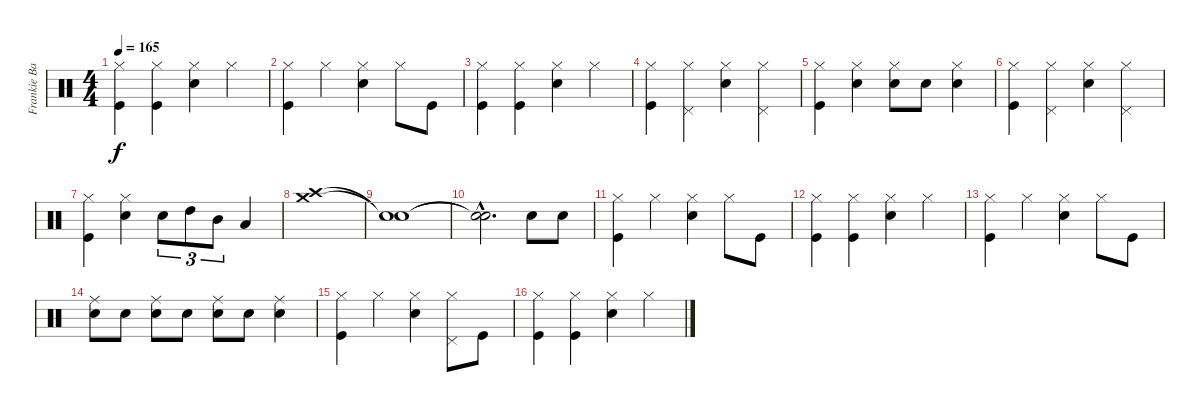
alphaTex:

\track ("Frankie Banali/Drums" "Frankie Ba") {instrument percussion}
\staff {score}
\articulation defaults
\ts (4 4)
\tempo 165
\clef neutral
\ks c
("Kick (hit)" "Hi-Hat (closed)").4{dy f} ("Kick (hit)" "Hi-Hat (closed)").4 ("Snare (hit) 2" "Hi-Hat (closed)").4 "Hi-Hat (closed)".4 |
("Kick (hit)" "Hi-Hat (closed)").4 "Hi-Hat (closed)".4 ("Snare (hit) 2" "Hi-Hat (closed)").4 "Hi-Hat (closed)".8 "Kick (hit)".8 |
("Kick (hit)" "Hi-Hat (closed)").4 ("Kick (hit)" "Hi-Hat (closed)").4 ("Snare (hit) 2" "Hi-Hat (closed)").4 "Hi-Hat (closed)".4 |
("Kick (hit)" "Hi-Hat (closed)").4 ("Pedal Hi-Hat (hit)" "Hi-Hat (closed)").4 ("Snare (hit) 2" "Hi-Hat (closed)").4 ("Pedal Hi-Hat (hit)" "Hi-Hat (closed)").4 |
("Kick (hit)" "Hi-Hat (closed)").4 ("Snare (hit) 2" "Hi-Hat (closed)").4 ("Snare (hit) 2" "Hi-Hat (closed)").8 "Snare (hit) 2".8 ("Snare (hit) 2" "Hi-Hat (closed)").4 |
("Kick (hit)" "Hi-Hat (closed)").4 ("Pedal Hi-Hat (hit)" "Hi-Hat (closed)").4 ("Snare (hit) 2" "Hi-Hat (closed)").4 ("Pedal Hi-Hat (hit)" "Hi-Hat (closed)").4 |
("Kick (hit)" "Hi-Hat (closed)").4 ("Snare (hit) 2" "Hi-Hat (closed)").4 "Snare (hit) 2".8{tu (3 2)} "High Tom (hit)".8{tu (3 2)} "Mid Tom (hit)".8{tu (3 2)} "Low Tom (hit)".4 |
("Crash high (hit)" "Crash medium (hit)").1 |
("Snare (hit)"{t} "Snare (hit)"{t}).1 |
("Snare (hit)"{hac t} "Snare (hit)"{hac t}).2{d} "Snare (hit) 2".8 "Snare (hit) 2".8 |
("Kick (hit)" "Hi-Hat (closed)").4 "Hi-Hat (closed)".4 ("Snare (hit) 2" "Hi-Hat (closed)").4 "Hi-Hat (closed)".8 "Kick (hit)".8 |
("Kick (hit)" "Hi-Hat (closed)").4 ("Kick (hit)" "Hi-Hat (closed)").4 ("Snare (hit) 2" "Hi-Hat (closed)").4 "Hi-Hat (closed)".4 |
("Kick (hit)" "Hi-Hat (closed)").4 "Hi-Hat (closed)".4 ("Snare (hit) 2" "Hi-Hat (closed)").4 "Hi-Hat (closed)".8 "Kick (hit)".8 |
("Snare (hit) 2" "Ride (middle)").8 "Snare (hit) 2".8 ("Snare (hit) 2" "Ride (middle)").8 "Snare (hit) 2".8 ("Snare (hit) 2" "Ride (middle)").8 "Snare (hit) 2".8 ("Snare (hit) 2" "Ride (middle)").4 |
("Kick (hit)" "Hi-Hat (closed)").4 "Hi-Hat (closed)".4 ("Snare (hit) 2" "Hi-Hat (closed)").4 ("Pedal Hi-Hat (hit)" "Hi-Hat (closed)").8 "Kick (hit)".8 |
("Kick (hit)" "Hi-Hat (closed)").4 ("Kick (hit)" "Hi-Hat (closed)").4 ("Snare (hit) 2" "Hi-Hat (closed)").4 "Hi-Hat (closed)".4
